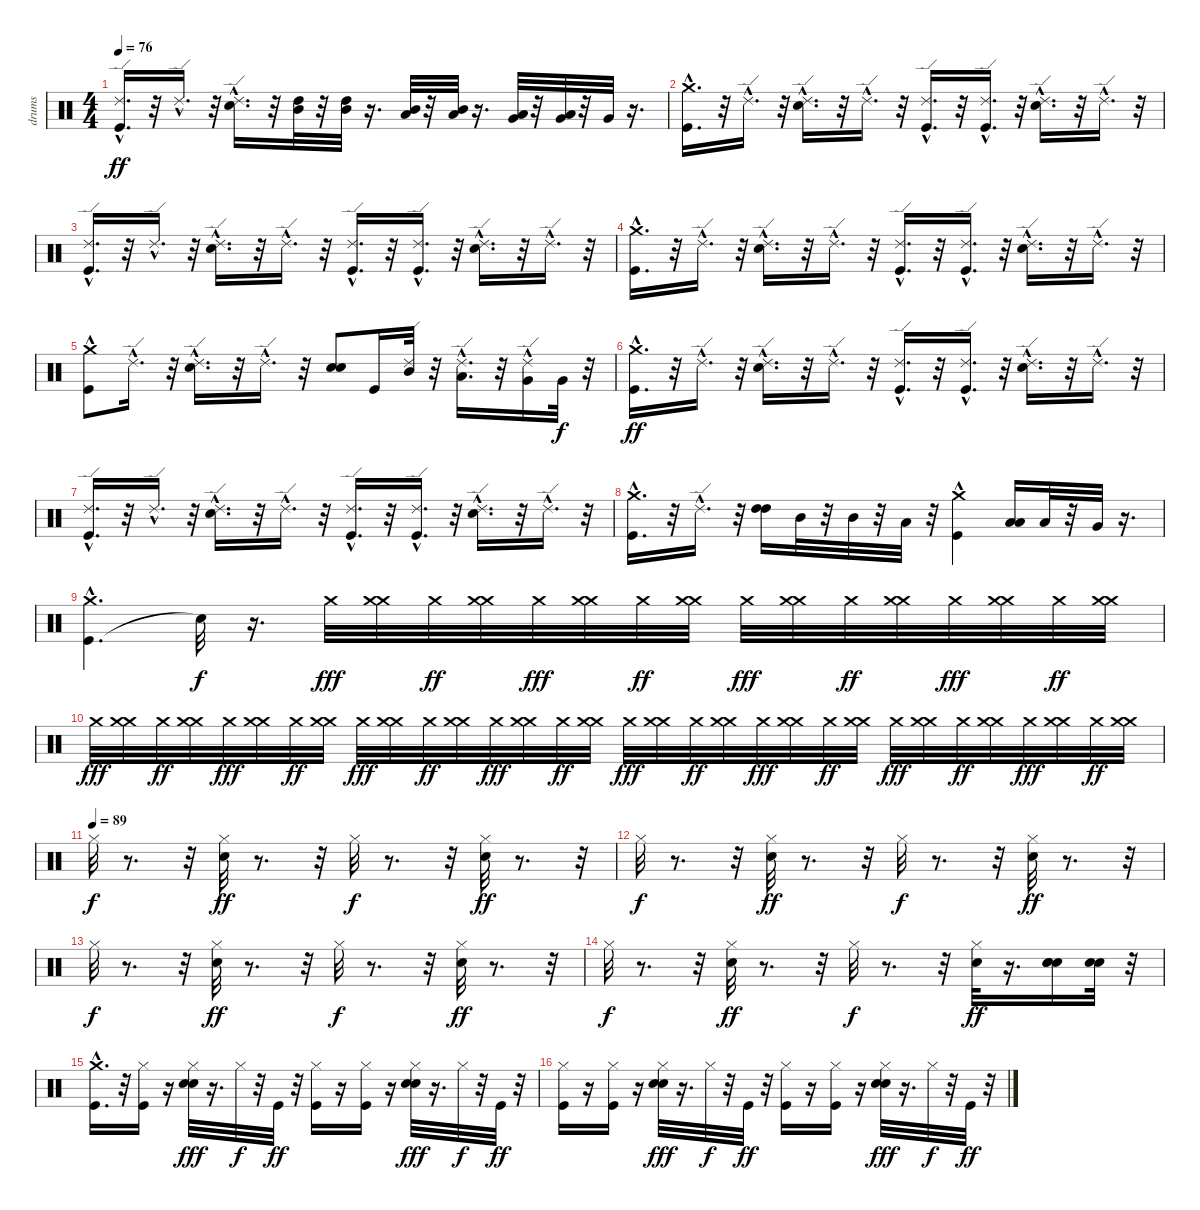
\track ("drums" "drums") {instrument percussion}
\staff {score}
\articulation defaults
\ts (4 4)
\tempo 76
\clef neutral
\ks c
("Ride (edge) 2"{hac} "Kick (hit)").16{d dy ff} r.32 "Ride (edge) 2"{hac}.16{d} r.32 ("Ride (edge) 2"{hac} "Electric Snare (hit)").16{d} r.32 ("High Tom (hit)" "Mid Tom (hit)").32 r.32 ("High Tom (hit)" "Mid Tom (hit)").32 r.16{d} ("Mid Tom (hit)" "Low Tom (hit)").32 r.32 ("Mid Tom (hit)" "Low Tom (hit)").32 r.16{d} ("Low Tom (hit)" "Very Low Tom (hit)").32 r.32 ("Low Tom (hit)" "Very Low Tom (hit)").32 r.32 "Very Low Tom (hit)".32 r.16{d} |
("Crash medium (hit)"{hac} "Kick (hit)").16{d} r.32 "Ride (edge) 2"{hac}.16{d} r.32 ("Ride (edge) 2"{hac} "Electric Snare (hit)").16{d} r.32 "Ride (edge) 2"{hac}.16{d} r.32 ("Ride (edge) 2"{hac} "Kick (hit)").16{d} r.32 ("Ride (edge) 2"{hac} "Kick (hit)").16{d} r.32 ("Ride (edge) 2"{hac} "Electric Snare (hit)").16{d} r.32 "Ride (edge) 2"{hac}.16{d} r.32 |
("Kick (hit)" "Ride (edge) 2"{hac}).16{d} r.32 "Ride (edge) 2"{hac}.16{d} r.32 ("Ride (edge) 2"{hac} "Electric Snare (hit)").16{d} r.32 "Ride (edge) 2"{hac}.16{d} r.32 ("Ride (edge) 2"{hac} "Kick (hit)").16{d} r.32 ("Ride (edge) 2"{hac} "Kick (hit)").16{d} r.32 ("Ride (edge) 2"{hac} "Electric Snare (hit)").16{d} r.32 "Ride (edge) 2"{hac}.16{d} r.32 |
("Crash medium (hit)"{hac} "Kick (hit)").16{d} r.32 "Ride (edge) 2"{hac}.16{d} r.32 ("Ride (edge) 2"{hac} "Electric Snare (hit)").16{d} r.32 "Ride (edge) 2"{hac}.16{d} r.32 ("Ride (edge) 2"{hac} "Kick (hit)").16{d} r.32 ("Ride (edge) 2"{hac} "Kick (hit)").16{d} r.32 ("Ride (edge) 2"{hac} "Electric Snare (hit)").16{d} r.32 "Ride (edge) 2"{hac}.16{d} r.32 |
("Kick (hit)" "Crash medium (hit)"{hac}).8 "Ride (edge) 2"{hac}.16{d} r.32 ("Ride (edge) 2"{hac} "Electric Snare (hit)").16{d} r.32 "Ride (edge) 2"{hac}.16{d} r.32 ("Electric Snare (hit)" "Electric Snare (hit)").8 "Kick (hit)".16 ("Mid Tom (hit)" "Ride (edge) 2").32 r.32 ("Low Tom (hit)" "Ride (edge) 2"{hac}).16{d} r.32 ("Very Low Tom (hit)" "Ride (edge) 2"{hac}).16 "Very Low Tom (hit)".32{dy f} r.32 |
("Crash medium (hit)"{hac} "Kick (hit)").16{d dy ff} r.32 "Ride (edge) 2"{hac}.16{d} r.32 ("Ride (edge) 2"{hac} "Electric Snare (hit)").16{d} r.32 "Ride (edge) 2"{hac}.16{d} r.32 ("Ride (edge) 2"{hac} "Kick (hit)").16{d} r.32 ("Ride (edge) 2"{hac} "Kick (hit)").16{d} r.32 ("Ride (edge) 2"{hac} "Electric Snare (hit)").16{d} r.32 "Ride (edge) 2"{hac}.16{d} r.32 |
("Kick (hit)" "Ride (edge) 2"{hac}).16{d} r.32 "Ride (edge) 2"{hac}.16{d} r.32 ("Ride (edge) 2"{hac} "Electric Snare (hit)").16{d} r.32 "Ride (edge) 2"{hac}.16{d} r.32 ("Ride (edge) 2"{hac} "Kick (hit)").16{d} r.32 ("Ride (edge) 2"{hac} "Kick (hit)").16{d} r.32 ("Ride (edge) 2"{hac} "Electric Snare (hit)").16{d} r.32 "Ride (edge) 2"{hac}.16{d} r.32 |
("Kick (hit)" "Crash medium (hit)"{hac}).16{d} r.32 "Ride (edge) 2"{hac}.16{d} r.32 ("High Tom (hit)" "High Tom (hit)").16 "Mid Tom (hit)".32 r.32 "Mid Tom (hit)".32 r.32 "Low Tom (hit)".32 r.32 ("Kick (hit)" "Crash medium (hit)"{hac}).4 ("Low Tom (hit)" "Low Tom (hit)").16 "Low Tom (hit)".32 r.32 "Very Low Tom (hit)".32 r.16{d} |
("Kick (hit)" "Crash medium (hit)"{hac}).4{d} "Snare (hit)"{t}.32{dy f} r.16{d} "Crash medium (hit)".32{dy fff} ("Crash medium (hit)" "Crash medium (hit)").32 "Crash medium (hit)".32{dy ff} ("Crash medium (hit)" "Crash medium (hit)").32 "Crash medium (hit)".32{dy fff} ("Crash medium (hit)" "Crash medium (hit)").32 "Crash medium (hit)".32{dy ff} ("Crash medium (hit)" "Crash medium (hit)").32 "Crash medium (hit)".32{dy fff} ("Crash medium (hit)" "Crash medium (hit)").32 "Crash medium (hit)".32{dy ff} ("Crash medium (hit)" "Crash medium (hit)").32 "Crash medium (hit)".32{dy fff} ("Crash medium (hit)" "Crash medium (hit)").32 "Crash medium (hit)".32{dy ff} ("Crash medium (hit)" "Crash medium (hit)").32 |
"Crash medium (hit)".32{dy fff} ("Crash medium (hit)" "Crash medium (hit)").32 "Crash medium (hit)".32{dy ff} ("Crash medium (hit)" "Crash medium (hit)").32 "Crash medium (hit)".32{dy fff} ("Crash medium (hit)" "Crash medium (hit)").32 "Crash medium (hit)".32{dy ff} ("Crash medium (hit)" "Crash medium (hit)").32 "Crash medium (hit)".32{dy fff} ("Crash medium (hit)" "Crash medium (hit)").32 "Crash medium (hit)".32{dy ff} ("Crash medium (hit)" "Crash medium (hit)").32 "Crash medium (hit)".32{dy fff} ("Crash medium (hit)" "Crash medium (hit)").32 "Crash medium (hit)".32{dy ff} ("Crash medium (hit)" "Crash medium (hit)").32 "Crash medium (hit)".32{dy fff} ("Crash medium (hit)" "Crash medium (hit)").32 "Crash medium (hit)".32{dy ff} ("Crash medium (hit)" "Crash medium (hit)").32 "Crash medium (hit)".32{dy fff} ("Crash medium (hit)" "Crash medium (hit)").32 "Crash medium (hit)".32{dy ff} ("Crash medium (hit)" "Crash medium (hit)").32 "Crash medium (hit)".32{dy fff} ("Crash medium (hit)" "Crash medium (hit)").32 "Crash medium (hit)".32{dy ff} ("Crash medium (hit)" "Crash medium (hit)").32 "Crash medium (hit)".32{dy fff} ("Crash medium (hit)" "Crash medium (hit)").32 "Crash medium (hit)".32{dy ff} ("Crash medium (hit)" "Crash medium (hit)").32 |
\tempo (89)
"Hi-Hat (closed)".32{dy f} r.8{d} r.32 ("Hi-Hat (closed)" "Hand Clap (hit)").32{dy ff} r.8{d} r.32 "Hi-Hat (closed)".32{dy f} r.8{d} r.32 ("Hi-Hat (closed)" "Hand Clap (hit)").32{dy ff} r.8{d} r.32 |
"Hi-Hat (closed)".32{dy f} r.8{d} r.32 ("Hi-Hat (closed)" "Hand Clap (hit)").32{dy ff} r.8{d} r.32 "Hi-Hat (closed)".32{dy f} r.8{d} r.32 ("Hi-Hat (closed)" "Hand Clap (hit)").32{dy ff} r.8{d} r.32 |
"Hi-Hat (closed)".32{dy f} r.8{d} r.32 ("Hi-Hat (closed)" "Hand Clap (hit)").32{dy ff} r.8{d} r.32 "Hi-Hat (closed)".32{dy f} r.8{d} r.32 ("Hi-Hat (closed)" "Hand Clap (hit)").32{dy ff} r.8{d} r.32 |
"Hi-Hat (closed)".32{dy f} r.8{d} r.32 ("Hi-Hat (closed)" "Hand Clap (hit)").32{dy ff} r.8{d} r.32 "Hi-Hat (closed)".32{dy f} r.8{d} r.32 ("Hi-Hat (closed)" "Hand Clap (hit)").32{dy ff} r.16{d} ("Electric Snare (hit)" "Electric Snare (hit)" "Hand Clap (hit)").16 ("Electric Snare (hit)" "Hand Clap (hit)").32 r.32 |
("Crash medium (hit)"{hac} "Kick (hit)").16{d} r.32 ("Hi-Hat (closed)" "Kick (hit)").16 r.16 ("Hi-Hat (closed)" "Electric Snare (hit)" "Hand Clap (hit)").32{dy fff} r.16{d} "Hi-Hat (closed)".32{dy f} r.32 "Kick (hit)".32{dy ff} r.32 ("Hi-Hat (closed)" "Kick (hit)").16 r.16 ("Hi-Hat (closed)" "Kick (hit)").16 r.16 ("Hi-Hat (closed)" "Electric Snare (hit)" "Hand Clap (hit)").32{dy fff} r.16{d} "Hi-Hat (closed)".32{dy f} r.32 "Kick (hit)".32{dy ff} r.32 |
("Kick (hit)" "Hi-Hat (closed)").16 r.16 ("Hi-Hat (closed)" "Kick (hit)").16 r.16 ("Hi-Hat (closed)" "Electric Snare (hit)" "Hand Clap (hit)").32{dy fff} r.16{d} "Hi-Hat (closed)".32{dy f} r.32 "Kick (hit)".32{dy ff} r.32 ("Hi-Hat (closed)" "Kick (hit)").16 r.16 ("Hi-Hat (closed)" "Kick (hit)").16 r.16 ("Hi-Hat (closed)" "Electric Snare (hit)" "Hand Clap (hit)").32{dy fff} r.16{d} "Hi-Hat (closed)".32{dy f} r.32 "Kick (hit)".32{dy ff} r.32
